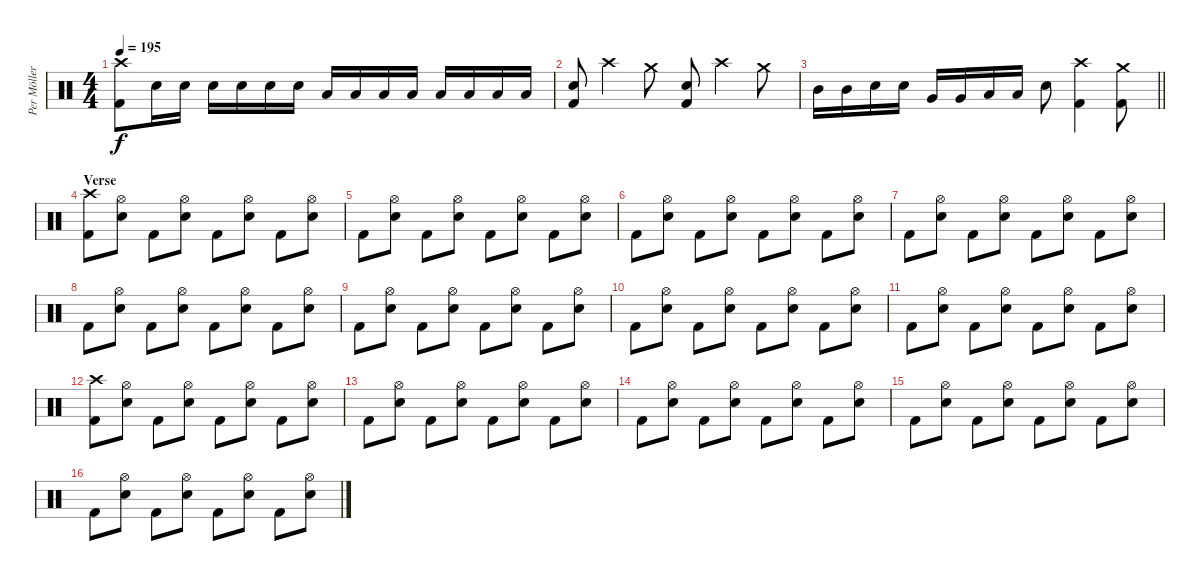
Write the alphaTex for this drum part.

\track ("Per Möller Jensen" "Per Möller") {instrument percussion}
\staff {score}
\articulation defaults
\ts (4 4)
\tempo 195
\clef neutral
\ks c
("Crash high (hit)" "Kick (hit) 2").8{dy f} "Snare (hit) 2".16 "Snare (hit) 2".16 "Snare (hit) 2".16 "Snare (hit) 2".16 "Snare (hit) 2".16 "Snare (hit) 2".16 "Low Tom (hit)".16 "Low Tom (hit)".16 "Low Tom (hit)".16 "Low Tom (hit)".16 "Low Floor Tom (hit)".16 "Low Floor Tom (hit)".16 "Low Floor Tom (hit)".16 "Low Floor Tom (hit)".16 |
("Snare (hit) 2" "Kick (hit) 2").8 "Crash high (hit)".4 "Crash medium (hit)".8 ("Snare (hit) 2" "Kick (hit) 2").8 "Crash high (hit)".4 "Crash medium (hit)".8 |
\barLineRight lightlight "Mid Tom (hit)".16 "Mid Tom (hit)".16 "Snare (hit) 2".16 "Snare (hit) 2".16 "Very Low Tom (hit)".16 "Very Low Tom (hit)".16 "Low Floor Tom (hit)".16 "Low Floor Tom (hit)".16 "Snare (hit) 2".8
("Crash high (hit)" "Kick (hit) 2").4 ("Crash medium (hit)" "Kick (hit) 2").8 |
\section ("" "Verse")
("Crash high (hit)" "Kick (hit) 2").8 ("Hi-Hat (open)" "Snare (hit) 2").8 "Kick (hit) 2".8 ("Hi-Hat (open)" "Snare (hit) 2").8 "Kick (hit) 2".8 ("Hi-Hat (open)" "Snare (hit) 2").8 "Kick (hit) 2".8 ("Hi-Hat (open)" "Snare (hit) 2").8 |
"Kick (hit) 2".8 ("Hi-Hat (open)" "Snare (hit) 2").8 "Kick (hit) 2".8 ("Hi-Hat (open)" "Snare (hit) 2").8 "Kick (hit) 2".8 ("Hi-Hat (open)" "Snare (hit) 2").8 "Kick (hit) 2".8 ("Hi-Hat (open)" "Snare (hit) 2").8 |
"Kick (hit) 2".8 ("Hi-Hat (open)" "Snare (hit) 2").8 "Kick (hit) 2".8 ("Hi-Hat (open)" "Snare (hit) 2").8 "Kick (hit) 2".8 ("Hi-Hat (open)" "Snare (hit) 2").8 "Kick (hit) 2".8 ("Hi-Hat (open)" "Snare (hit) 2").8 |
"Kick (hit) 2".8 ("Hi-Hat (open)" "Snare (hit) 2").8 "Kick (hit) 2".8 ("Hi-Hat (open)" "Snare (hit) 2").8 "Kick (hit) 2".8 ("Hi-Hat (open)" "Snare (hit) 2").8 "Kick (hit) 2".8 ("Hi-Hat (open)" "Snare (hit) 2").8 |
"Kick (hit) 2".8 ("Hi-Hat (open)" "Snare (hit) 2").8 "Kick (hit) 2".8 ("Hi-Hat (open)" "Snare (hit) 2").8 "Kick (hit) 2".8 ("Hi-Hat (open)" "Snare (hit) 2").8 "Kick (hit) 2".8 ("Hi-Hat (open)" "Snare (hit) 2").8 |
"Kick (hit) 2".8 ("Hi-Hat (open)" "Snare (hit) 2").8 "Kick (hit) 2".8 ("Hi-Hat (open)" "Snare (hit) 2").8 "Kick (hit) 2".8 ("Hi-Hat (open)" "Snare (hit) 2").8 "Kick (hit) 2".8 ("Hi-Hat (open)" "Snare (hit) 2").8 |
"Kick (hit) 2".8 ("Hi-Hat (open)" "Snare (hit) 2").8 "Kick (hit) 2".8 ("Hi-Hat (open)" "Snare (hit) 2").8 "Kick (hit) 2".8 ("Hi-Hat (open)" "Snare (hit) 2").8 "Kick (hit) 2".8 ("Hi-Hat (open)" "Snare (hit) 2").8 |
"Kick (hit) 2".8 ("Hi-Hat (open)" "Snare (hit) 2").8 "Kick (hit) 2".8 ("Hi-Hat (open)" "Snare (hit) 2").8 "Kick (hit) 2".8 ("Hi-Hat (open)" "Snare (hit) 2").8 "Kick (hit) 2".8 ("Hi-Hat (open)" "Snare (hit) 2").8 |
("Crash high (hit)" "Kick (hit) 2").8 ("Hi-Hat (open)" "Snare (hit) 2").8 "Kick (hit) 2".8 ("Hi-Hat (open)" "Snare (hit) 2").8 "Kick (hit) 2".8 ("Hi-Hat (open)" "Snare (hit) 2").8 "Kick (hit) 2".8 ("Hi-Hat (open)" "Snare (hit) 2").8 |
"Kick (hit) 2".8 ("Hi-Hat (open)" "Snare (hit) 2").8 "Kick (hit) 2".8 ("Hi-Hat (open)" "Snare (hit) 2").8 "Kick (hit) 2".8 ("Hi-Hat (open)" "Snare (hit) 2").8 "Kick (hit) 2".8 ("Hi-Hat (open)" "Snare (hit) 2").8 |
"Kick (hit) 2".8 ("Hi-Hat (open)" "Snare (hit) 2").8 "Kick (hit) 2".8 ("Hi-Hat (open)" "Snare (hit) 2").8 "Kick (hit) 2".8 ("Hi-Hat (open)" "Snare (hit) 2").8 "Kick (hit) 2".8 ("Hi-Hat (open)" "Snare (hit) 2").8 |
"Kick (hit) 2".8 ("Hi-Hat (open)" "Snare (hit) 2").8 "Kick (hit) 2".8 ("Hi-Hat (open)" "Snare (hit) 2").8 "Kick (hit) 2".8 ("Hi-Hat (open)" "Snare (hit) 2").8 "Kick (hit) 2".8 ("Hi-Hat (open)" "Snare (hit) 2").8 |
"Kick (hit) 2".8 ("Hi-Hat (open)" "Snare (hit) 2").8 "Kick (hit) 2".8 ("Hi-Hat (open)" "Snare (hit) 2").8 "Kick (hit) 2".8 ("Hi-Hat (open)" "Snare (hit) 2").8 "Kick (hit) 2".8 ("Hi-Hat (open)" "Snare (hit) 2").8
